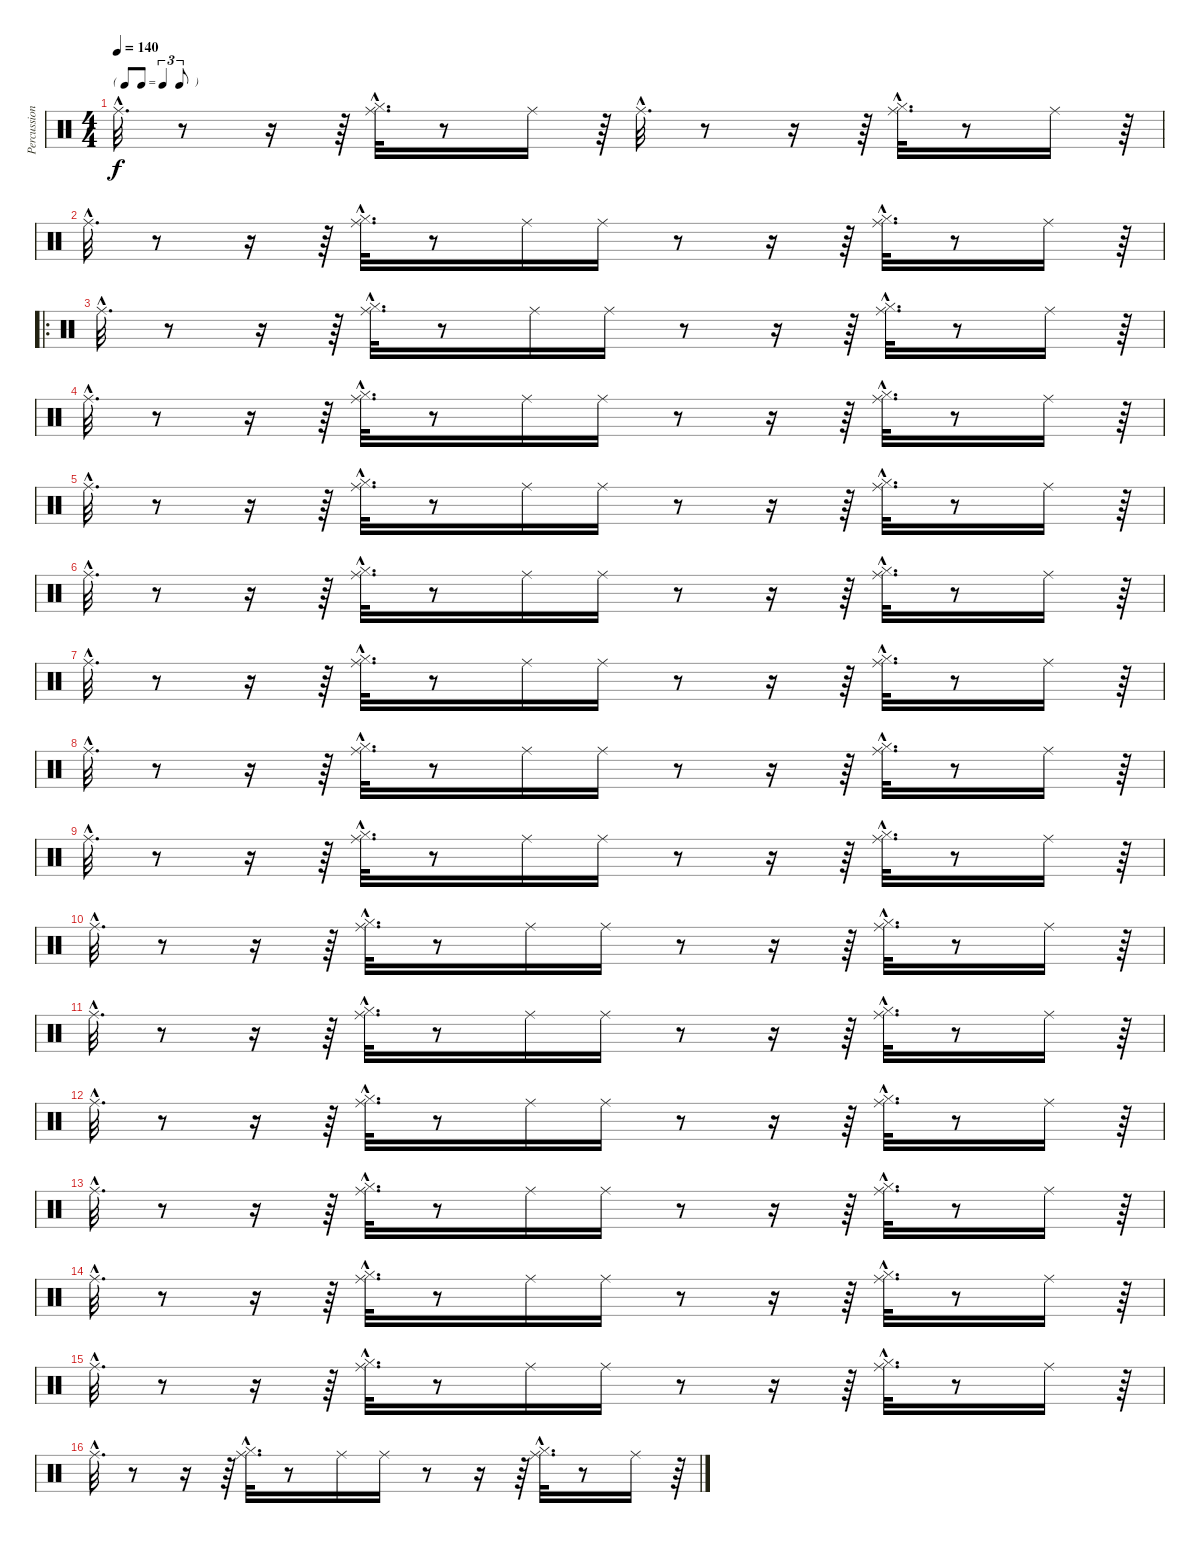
\track ("Percussions" "Percussion") {instrument percussion}
\staff {score}
\articulation defaults
\ts (4 4)
\tf triplet8th
\tempo 140
\clef neutral
\ks c "Ride (middle)"{hac}.32{d dy f}
r.8 r.16 r.64 ("Hi-Hat (closed)"{hac} "Ride (middle)"{hac}).32{d} r.8 "Ride (middle)".16 r.64 "Ride (middle)"{hac}.32{d} r.8 r.16 r.64 ("Hi-Hat (closed)"{hac} "Ride (middle)"{hac}).32{d} r.8 "Ride (middle)".16 r.64 |
"Ride (middle)"{hac}.32{d} r.8 r.16 r.64 ("Hi-Hat (closed)"{hac} "Ride (middle)"{hac}).32{d} r.8 "Ride (middle)".16 "Ride (middle)".16 r.8 r.16 r.64 ("Hi-Hat (closed)"{hac} "Ride (middle)"{hac}).32{d} r.8 "Ride (middle)".16 r.64 |
\ro "Ride (middle)"{hac}.32{d}
r.8 r.16 r.64 ("Hi-Hat (closed)"{hac} "Ride (middle)"{hac}).32{d} r.8 "Ride (middle)".16 "Ride (middle)".16 r.8 r.16 r.64 ("Hi-Hat (closed)"{hac} "Ride (middle)"{hac}).32{d} r.8 "Ride (middle)".16 r.64 |
"Ride (middle)"{hac}.32{d} r.8 r.16 r.64 ("Hi-Hat (closed)"{hac} "Ride (middle)"{hac}).32{d} r.8 "Ride (middle)".16 "Ride (middle)".16 r.8 r.16 r.64 ("Hi-Hat (closed)"{hac} "Ride (middle)"{hac}).32{d} r.8 "Ride (middle)".16 r.64 |
"Ride (middle)"{hac}.32{d} r.8 r.16 r.64 ("Hi-Hat (closed)"{hac} "Ride (middle)"{hac}).32{d} r.8 "Ride (middle)".16 "Ride (middle)".16 r.8 r.16 r.64 ("Hi-Hat (closed)"{hac} "Ride (middle)"{hac}).32{d} r.8 "Ride (middle)".16 r.64 |
"Ride (middle)"{hac}.32{d} r.8 r.16 r.64 ("Hi-Hat (closed)"{hac} "Ride (middle)"{hac}).32{d} r.8 "Ride (middle)".16 "Ride (middle)".16 r.8 r.16 r.64 ("Hi-Hat (closed)"{hac} "Ride (middle)"{hac}).32{d} r.8 "Ride (middle)".16 r.64 |
"Ride (middle)"{hac}.32{d} r.8 r.16 r.64 ("Hi-Hat (closed)"{hac} "Ride (middle)"{hac}).32{d} r.8 "Ride (middle)".16 "Ride (middle)".16 r.8 r.16 r.64 ("Hi-Hat (closed)"{hac} "Ride (middle)"{hac}).32{d} r.8 "Ride (middle)".16 r.64 |
"Ride (middle)"{hac}.32{d} r.8 r.16 r.64 ("Hi-Hat (closed)"{hac} "Ride (middle)"{hac}).32{d} r.8 "Ride (middle)".16 "Ride (middle)".16 r.8 r.16 r.64 ("Hi-Hat (closed)"{hac} "Ride (middle)"{hac}).32{d} r.8 "Ride (middle)".16 r.64 |
"Ride (middle)"{hac}.32{d} r.8 r.16 r.64 ("Hi-Hat (closed)"{hac} "Ride (middle)"{hac}).32{d} r.8 "Ride (middle)".16 "Ride (middle)".16 r.8 r.16 r.64 ("Hi-Hat (closed)"{hac} "Ride (middle)"{hac}).32{d} r.8 "Ride (middle)".16 r.64 |
"Ride (middle)"{hac}.32{d} r.8 r.16 r.64 ("Hi-Hat (closed)"{hac} "Ride (middle)"{hac}).32{d} r.8 "Ride (middle)".16 "Ride (middle)".16 r.8 r.16 r.64 ("Hi-Hat (closed)"{hac} "Ride (middle)"{hac}).32{d} r.8 "Ride (middle)".16 r.64 |
"Ride (middle)"{hac}.32{d} r.8 r.16 r.64 ("Hi-Hat (closed)"{hac} "Ride (middle)"{hac}).32{d} r.8 "Ride (middle)".16 "Ride (middle)".16 r.8 r.16 r.64 ("Hi-Hat (closed)"{hac} "Ride (middle)"{hac}).32{d} r.8 "Ride (middle)".16 r.64 |
"Ride (middle)"{hac}.32{d} r.8 r.16 r.64 ("Hi-Hat (closed)"{hac} "Ride (middle)"{hac}).32{d} r.8 "Ride (middle)".16 "Ride (middle)".16 r.8 r.16 r.64 ("Hi-Hat (closed)"{hac} "Ride (middle)"{hac}).32{d} r.8 "Ride (middle)".16 r.64 |
"Ride (middle)"{hac}.32{d} r.8 r.16 r.64 ("Hi-Hat (closed)"{hac} "Ride (middle)"{hac}).32{d} r.8 "Ride (middle)".16 "Ride (middle)".16 r.8 r.16 r.64 ("Hi-Hat (closed)"{hac} "Ride (middle)"{hac}).32{d} r.8 "Ride (middle)".16 r.64 |
"Ride (middle)"{hac}.32{d} r.8 r.16 r.64 ("Hi-Hat (closed)"{hac} "Ride (middle)"{hac}).32{d} r.8 "Ride (middle)".16 "Ride (middle)".16 r.8 r.16 r.64 ("Hi-Hat (closed)"{hac} "Ride (middle)"{hac}).32{d} r.8 "Ride (middle)".16 r.64 |
"Ride (middle)"{hac}.32{d} r.8 r.16 r.64 ("Hi-Hat (closed)"{hac} "Ride (middle)"{hac}).32{d} r.8 "Ride (middle)".16 "Ride (middle)".16 r.8 r.16 r.64 ("Hi-Hat (closed)"{hac} "Ride (middle)"{hac}).32{d} r.8 "Ride (middle)".16 r.64 |
"Ride (middle)"{hac}.32{d} r.8 r.16 r.64 ("Hi-Hat (closed)"{hac} "Ride (middle)"{hac}).32{d} r.8 "Ride (middle)".16 "Ride (middle)".16 r.8 r.16 r.64 ("Hi-Hat (closed)"{hac} "Ride (middle)"{hac}).32{d} r.8 "Ride (middle)".16 r.64
